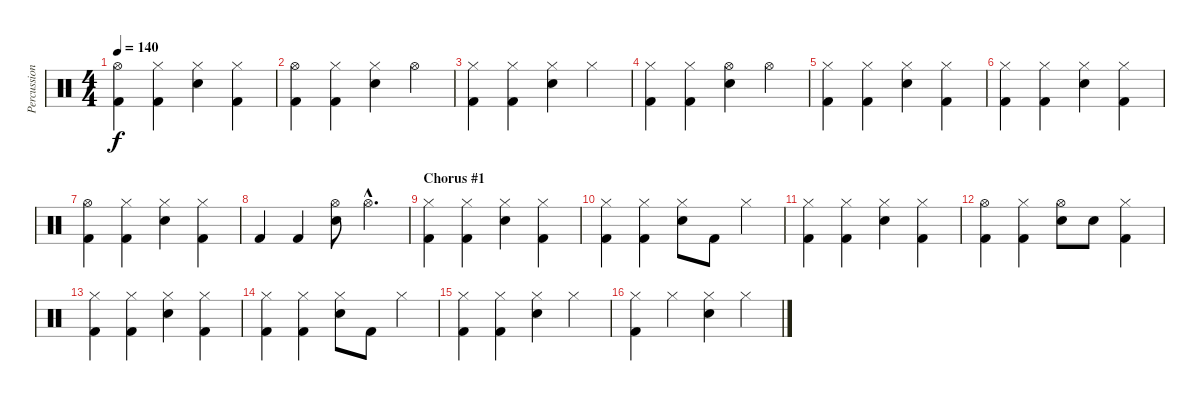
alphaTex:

\track ("Percussion" "Percussion") {instrument percussion}
\staff {score}
\articulation defaults
\ts (4 4)
\tempo 140
\clef neutral
\ks c
("Hi-Hat (open)" "Kick (hit) 2").4{dy f} ("Hi-Hat (closed)" "Kick (hit) 2").4 ("Hi-Hat (closed)" "Electric Snare (hit)").4 ("Hi-Hat (closed)" "Kick (hit) 2").4 |
("Hi-Hat (open)" "Kick (hit) 2").4 ("Hi-Hat (closed)" "Kick (hit) 2").4 ("Hi-Hat (closed)" "Electric Snare (hit)").4 "Hi-Hat (open)".4 |
("Hi-Hat (closed)" "Kick (hit) 2").4 ("Hi-Hat (closed)" "Kick (hit) 2").4 ("Hi-Hat (closed)" "Electric Snare (hit)").4 "Hi-Hat (closed)".4 |
("Hi-Hat (closed)" "Kick (hit) 2").4 ("Hi-Hat (closed)" "Kick (hit) 2").4 ("Hi-Hat (open)" "Electric Snare (hit)").4 "Hi-Hat (open)".4 |
("Hi-Hat (closed)" "Kick (hit) 2").4 ("Hi-Hat (closed)" "Kick (hit) 2").4 ("Hi-Hat (closed)" "Electric Snare (hit)").4 ("Hi-Hat (closed)" "Kick (hit) 2").4 |
("Hi-Hat (closed)" "Kick (hit) 2").4 ("Hi-Hat (closed)" "Kick (hit) 2").4 ("Hi-Hat (closed)" "Electric Snare (hit)").4 ("Hi-Hat (closed)" "Kick (hit) 2").4 |
("Hi-Hat (open)" "Kick (hit) 2").4 ("Hi-Hat (closed)" "Kick (hit) 2").4 ("Hi-Hat (closed)" "Electric Snare (hit)").4 ("Hi-Hat (closed)" "Kick (hit) 2").4 |
"Kick (hit) 2".4 "Kick (hit) 2".4 ("Hi-Hat (open)" "Electric Snare (hit)").8 "Hi-Hat (open)"{hac}.4{d} |
\section ("" "Chorus #1")
("Hi-Hat (closed)" "Kick (hit) 2").4 ("Hi-Hat (closed)" "Kick (hit) 2").4 ("Hi-Hat (closed)" "Electric Snare (hit)").4 ("Hi-Hat (closed)" "Kick (hit) 2").4 |
("Hi-Hat (closed)" "Kick (hit) 2").4 ("Hi-Hat (closed)" "Kick (hit) 2").4 ("Hi-Hat (closed)" "Electric Snare (hit)").8 "Kick (hit) 2".8 "Hi-Hat (closed)".4 |
("Hi-Hat (closed)" "Kick (hit) 2").4 ("Hi-Hat (closed)" "Kick (hit) 2").4 ("Hi-Hat (closed)" "Electric Snare (hit)").4 ("Hi-Hat (closed)" "Kick (hit) 2").4 |
("Hi-Hat (open)" "Kick (hit) 2").4 ("Hi-Hat (closed)" "Kick (hit) 2").4 ("Hi-Hat (open)" "Electric Snare (hit)").8 "Electric Snare (hit)".8 ("Hi-Hat (closed)" "Kick (hit) 2").4 |
("Hi-Hat (closed)" "Kick (hit) 2").4 ("Hi-Hat (closed)" "Kick (hit) 2").4 ("Hi-Hat (closed)" "Electric Snare (hit)").4 ("Hi-Hat (closed)" "Kick (hit) 2").4 |
("Hi-Hat (closed)" "Kick (hit) 2").4 ("Hi-Hat (closed)" "Kick (hit) 2").4 ("Hi-Hat (closed)" "Electric Snare (hit)").8 "Kick (hit) 2".8 "Hi-Hat (closed)".4 |
("Hi-Hat (closed)" "Kick (hit) 2").4 ("Hi-Hat (closed)" "Kick (hit) 2").4 ("Hi-Hat (closed)" "Electric Snare (hit)").4 "Hi-Hat (closed)".4 |
("Hi-Hat (closed)" "Kick (hit) 2").4 "Hi-Hat (closed)".4 ("Hi-Hat (closed)" "Electric Snare (hit)").4 "Hi-Hat (closed)".4
